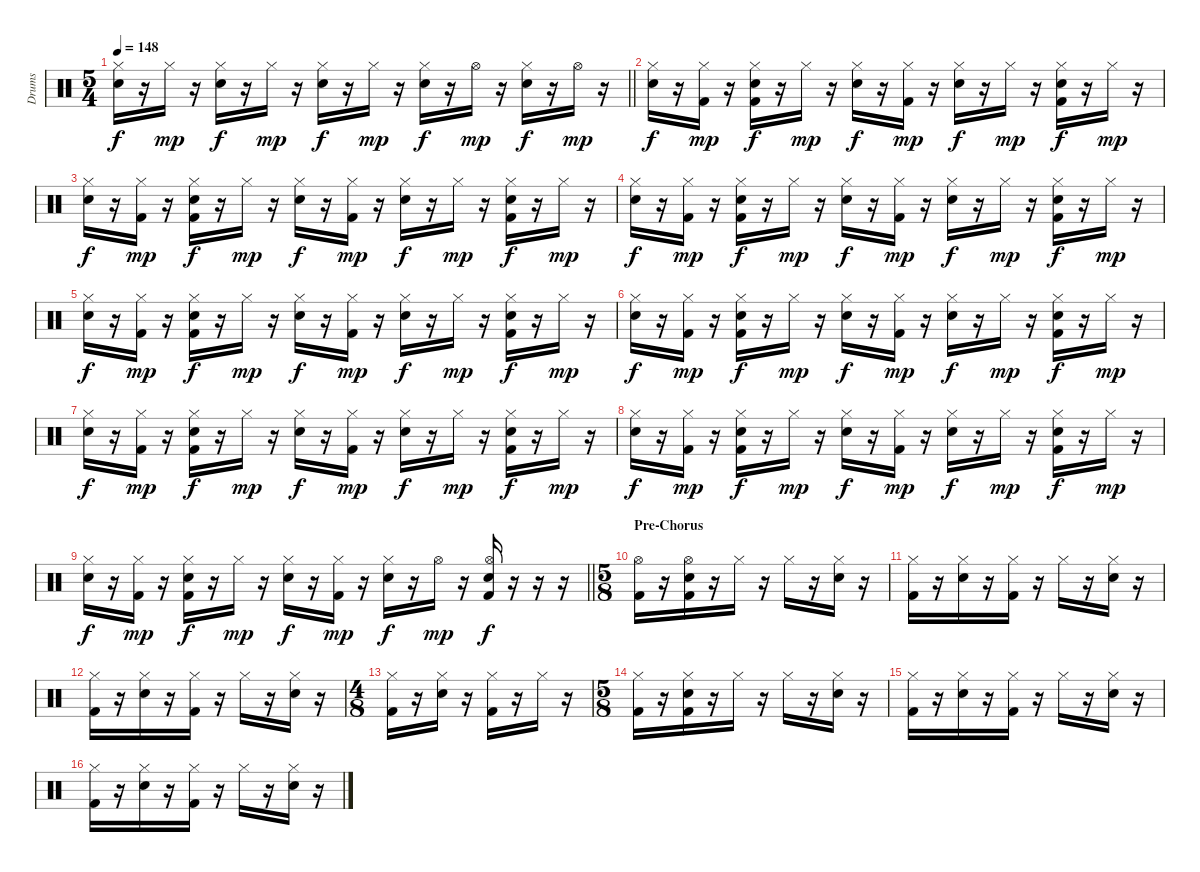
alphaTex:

\track ("Drums" "Drums") {instrument percussion}
\staff {score}
\articulation defaults
\ts (5 4)
\tempo 148
\clef neutral
\barLineRight lightlight
\ks c
("Hi-Hat (closed)" "Electric Snare (hit)").16{dy f} r.16 "Hi-Hat (closed)".16{dy mp} r.16 ("Hi-Hat (closed)" "Electric Snare (hit)").16{dy f} r.16 "Hi-Hat (closed)".16{dy mp} r.16 ("Hi-Hat (closed)" "Electric Snare (hit)").16{dy f} r.16 "Hi-Hat (closed)".16{dy mp} r.16 ("Hi-Hat (closed)" "Electric Snare (hit)").16{dy f} r.16 "Hi-Hat (open)".16{dy mp} r.16 ("Hi-Hat (closed)" "Electric Snare (hit)").16{dy f} r.16 "Hi-Hat (open)".16{dy mp} r.16 |
("Hi-Hat (closed)" "Electric Snare (hit)").16{dy f} r.16 ("Hi-Hat (closed)" "Kick (hit) 2").16{dy mp} r.16 ("Hi-Hat (closed)" "Electric Snare (hit)" "Kick (hit) 2").16{dy f} r.16 "Hi-Hat (closed)".16{dy mp} r.16 ("Hi-Hat (closed)" "Electric Snare (hit)").16{dy f} r.16 ("Hi-Hat (closed)" "Kick (hit) 2").16{dy mp} r.16 ("Hi-Hat (closed)" "Electric Snare (hit)").16{dy f} r.16 "Hi-Hat (closed)".16{dy mp} r.16 ("Hi-Hat (closed)" "Electric Snare (hit)" "Kick (hit) 2").16{dy f} r.16 "Hi-Hat (closed)".16{dy mp} r.16 |
("Hi-Hat (closed)" "Electric Snare (hit)").16{dy f} r.16 ("Hi-Hat (closed)" "Kick (hit) 2").16{dy mp} r.16 ("Hi-Hat (closed)" "Electric Snare (hit)" "Kick (hit) 2").16{dy f} r.16 "Hi-Hat (closed)".16{dy mp} r.16 ("Hi-Hat (closed)" "Electric Snare (hit)").16{dy f} r.16 ("Hi-Hat (closed)" "Kick (hit) 2").16{dy mp} r.16 ("Hi-Hat (closed)" "Electric Snare (hit)").16{dy f} r.16 "Hi-Hat (closed)".16{dy mp} r.16 ("Hi-Hat (closed)" "Electric Snare (hit)" "Kick (hit) 2").16{dy f} r.16 "Hi-Hat (closed)".16{dy mp} r.16 |
("Hi-Hat (closed)" "Electric Snare (hit)").16{dy f} r.16 ("Hi-Hat (closed)" "Kick (hit) 2").16{dy mp} r.16 ("Hi-Hat (closed)" "Electric Snare (hit)" "Kick (hit) 2").16{dy f} r.16 "Hi-Hat (closed)".16{dy mp} r.16 ("Hi-Hat (closed)" "Electric Snare (hit)").16{dy f} r.16 ("Hi-Hat (closed)" "Kick (hit) 2").16{dy mp} r.16 ("Hi-Hat (closed)" "Electric Snare (hit)").16{dy f} r.16 "Hi-Hat (closed)".16{dy mp} r.16 ("Hi-Hat (closed)" "Electric Snare (hit)" "Kick (hit) 2").16{dy f} r.16 "Hi-Hat (closed)".16{dy mp} r.16 |
("Hi-Hat (closed)" "Electric Snare (hit)").16{dy f} r.16 ("Hi-Hat (closed)" "Kick (hit) 2").16{dy mp} r.16 ("Hi-Hat (closed)" "Electric Snare (hit)" "Kick (hit) 2").16{dy f} r.16 "Hi-Hat (closed)".16{dy mp} r.16 ("Hi-Hat (closed)" "Electric Snare (hit)").16{dy f} r.16 ("Hi-Hat (closed)" "Kick (hit) 2").16{dy mp} r.16 ("Hi-Hat (closed)" "Electric Snare (hit)").16{dy f} r.16 "Hi-Hat (closed)".16{dy mp} r.16 ("Hi-Hat (closed)" "Electric Snare (hit)" "Kick (hit) 2").16{dy f} r.16 "Hi-Hat (closed)".16{dy mp} r.16 |
("Hi-Hat (closed)" "Electric Snare (hit)").16{dy f} r.16 ("Hi-Hat (closed)" "Kick (hit) 2").16{dy mp} r.16 ("Hi-Hat (closed)" "Electric Snare (hit)" "Kick (hit) 2").16{dy f} r.16 "Hi-Hat (closed)".16{dy mp} r.16 ("Hi-Hat (closed)" "Electric Snare (hit)").16{dy f} r.16 ("Hi-Hat (closed)" "Kick (hit) 2").16{dy mp} r.16 ("Hi-Hat (closed)" "Electric Snare (hit)").16{dy f} r.16 "Hi-Hat (closed)".16{dy mp} r.16 ("Hi-Hat (closed)" "Electric Snare (hit)" "Kick (hit) 2").16{dy f} r.16 "Hi-Hat (closed)".16{dy mp} r.16 |
("Hi-Hat (closed)" "Electric Snare (hit)").16{dy f} r.16 ("Hi-Hat (closed)" "Kick (hit) 2").16{dy mp} r.16 ("Hi-Hat (closed)" "Electric Snare (hit)" "Kick (hit) 2").16{dy f} r.16 "Hi-Hat (closed)".16{dy mp} r.16 ("Hi-Hat (closed)" "Electric Snare (hit)").16{dy f} r.16 ("Hi-Hat (closed)" "Kick (hit) 2").16{dy mp} r.16 ("Hi-Hat (closed)" "Electric Snare (hit)").16{dy f} r.16 "Hi-Hat (closed)".16{dy mp} r.16 ("Hi-Hat (closed)" "Electric Snare (hit)" "Kick (hit) 2").16{dy f} r.16 "Hi-Hat (closed)".16{dy mp} r.16 |
("Hi-Hat (closed)" "Electric Snare (hit)").16{dy f} r.16 ("Hi-Hat (closed)" "Kick (hit) 2").16{dy mp} r.16 ("Hi-Hat (closed)" "Electric Snare (hit)" "Kick (hit) 2").16{dy f} r.16 "Hi-Hat (closed)".16{dy mp} r.16 ("Hi-Hat (closed)" "Electric Snare (hit)").16{dy f} r.16 ("Hi-Hat (closed)" "Kick (hit) 2").16{dy mp} r.16 ("Hi-Hat (closed)" "Electric Snare (hit)").16{dy f} r.16 "Hi-Hat (closed)".16{dy mp} r.16 ("Hi-Hat (closed)" "Electric Snare (hit)" "Kick (hit) 2").16{dy f} r.16 "Hi-Hat (closed)".16{dy mp} r.16 |
\barLineRight lightlight
("Hi-Hat (closed)" "Electric Snare (hit)").16{dy f} r.16 ("Hi-Hat (closed)" "Kick (hit) 2").16{dy mp} r.16 ("Hi-Hat (closed)" "Electric Snare (hit)" "Kick (hit) 2").16{dy f} r.16 "Hi-Hat (closed)".16{dy mp} r.16 ("Hi-Hat (closed)" "Electric Snare (hit)").16{dy f} r.16 ("Hi-Hat (closed)" "Kick (hit) 2").16{dy mp} r.16 ("Hi-Hat (closed)" "Electric Snare (hit)").16{dy f} r.16 "Hi-Hat (open)".16{dy mp} r.16 ("Hi-Hat (open)" "Electric Snare (hit)" "Kick (hit) 2").16{dy f} r.16 r.16 r.16 |
\ts (5 8)
\section ("" "Pre-Chorus")
("Hi-Hat (open)" "Kick (hit) 2").16 r.16 ("Hi-Hat (open)" "Electric Snare (hit)" "Kick (hit) 2").16 r.16 "Hi-Hat (closed)".16 r.16 "Hi-Hat (closed)".16 r.16 ("Hi-Hat (closed)" "Electric Snare (hit)").16 r.16 |
("Hi-Hat (closed)" "Kick (hit) 2").16 r.16 ("Hi-Hat (closed)" "Electric Snare (hit)").16 r.16 ("Hi-Hat (closed)" "Kick (hit) 2").16 r.16 "Hi-Hat (closed)".16 r.16 ("Hi-Hat (closed)" "Electric Snare (hit)").16 r.16 |
("Hi-Hat (closed)" "Kick (hit) 2").16 r.16 ("Hi-Hat (closed)" "Electric Snare (hit)").16 r.16 ("Hi-Hat (closed)" "Kick (hit) 2").16 r.16 "Hi-Hat (closed)".16 r.16 ("Hi-Hat (closed)" "Electric Snare (hit)").16 r.16 |
\ts (4 8)
("Hi-Hat (closed)" "Kick (hit) 2").16 r.16 ("Hi-Hat (closed)" "Electric Snare (hit)").16 r.16 ("Hi-Hat (closed)" "Kick (hit) 2").16 r.16 "Hi-Hat (closed)".16 r.16 |
\ts (5 8)
("Hi-Hat (closed)" "Kick (hit) 2").16 r.16 ("Hi-Hat (closed)" "Electric Snare (hit)" "Kick (hit) 2").16 r.16 "Hi-Hat (closed)".16 r.16 "Hi-Hat (closed)".16 r.16 ("Hi-Hat (closed)" "Electric Snare (hit)").16 r.16 |
("Hi-Hat (closed)" "Kick (hit) 2").16 r.16 ("Hi-Hat (closed)" "Electric Snare (hit)").16 r.16 ("Hi-Hat (closed)" "Kick (hit) 2").16 r.16 "Hi-Hat (closed)".16 r.16 ("Hi-Hat (closed)" "Electric Snare (hit)").16 r.16 |
("Hi-Hat (closed)" "Kick (hit) 2").16 r.16 ("Hi-Hat (closed)" "Electric Snare (hit)").16 r.16 ("Hi-Hat (closed)" "Kick (hit) 2").16 r.16 "Hi-Hat (closed)".16 r.16 ("Hi-Hat (closed)" "Electric Snare (hit)").16 r.16
